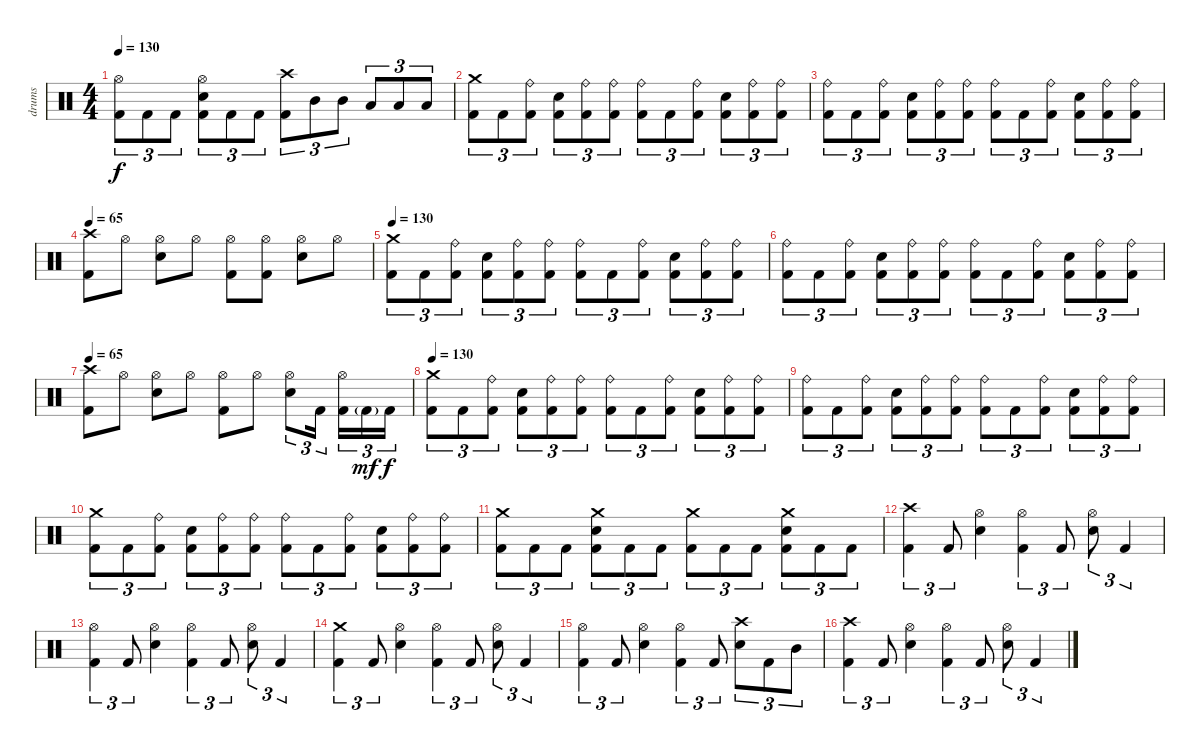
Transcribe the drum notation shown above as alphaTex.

\track ("drums" "drums") {instrument percussion}
\staff {score}
\articulation defaults
\ts (4 4)
\tempo 130
\clef neutral
\ks c
("Hi-Hat (open)" "Kick (hit) 2").8{tu (3 2) dy f} "Kick (hit) 2".8{tu (3 2)} "Kick (hit) 2".8{tu (3 2)} ("Hi-Hat (open)" "Electric Snare (hit)" "Kick (hit) 2").8{tu (3 2)} "Kick (hit) 2".8{tu (3 2)} "Kick (hit) 2".8{tu (3 2)} ("Crash high (hit)" "Kick (hit) 2").8{tu (3 2)} "Mid Tom (hit)".8{tu (3 2)} "Mid Tom (hit)".8{tu (3 2)} "Low Tom (hit)".8{tu (3 2)} "Low Tom (hit)".8{tu (3 2)} "Low Tom (hit)".8{tu (3 2)} |
("Crash medium (hit)" "Kick (hit) 2").8{tu (3 2)} "Kick (hit) 2".8{tu (3 2)} ("Ride (bell)" "Kick (hit) 2").8{tu (3 2)} ("Electric Snare (hit)" "Kick (hit) 2").8{tu (3 2)} ("Ride (bell)" "Kick (hit) 2").8{tu (3 2)} ("Ride (bell)" "Kick (hit) 2").8{tu (3 2)} ("Ride (bell)" "Kick (hit) 2").8{tu (3 2)} "Kick (hit) 2".8{tu (3 2)} ("Ride (bell)" "Kick (hit) 2").8{tu (3 2)} ("Electric Snare (hit)" "Kick (hit) 2").8{tu (3 2)} ("Ride (bell)" "Kick (hit) 2").8{tu (3 2)} ("Ride (bell)" "Kick (hit) 2").8{tu (3 2)} |
("Ride (bell)" "Kick (hit) 2").8{tu (3 2)} "Kick (hit) 2".8{tu (3 2)} ("Ride (bell)" "Kick (hit) 2").8{tu (3 2)} ("Electric Snare (hit)" "Kick (hit) 2").8{tu (3 2)} ("Ride (bell)" "Kick (hit) 2").8{tu (3 2)} ("Ride (bell)" "Kick (hit) 2").8{tu (3 2)} ("Ride (bell)" "Kick (hit) 2").8{tu (3 2)} "Kick (hit) 2".8{tu (3 2)} ("Ride (bell)" "Kick (hit) 2").8{tu (3 2)} ("Electric Snare (hit)" "Kick (hit) 2").8{tu (3 2)} ("Ride (bell)" "Kick (hit) 2").8{tu (3 2)} ("Ride (bell)" "Kick (hit) 2").8{tu (3 2)} |
\tempo 65
("Crash high (hit)" "Kick (hit) 2").8 "Hi-Hat (open)".8 ("Hi-Hat (open)" "Electric Snare (hit)").8 "Hi-Hat (open)".8 ("Hi-Hat (open)" "Kick (hit) 2").8 ("Hi-Hat (open)" "Kick (hit) 2").8 ("Hi-Hat (open)" "Electric Snare (hit)").8 "Hi-Hat (open)".8 |
\tempo 130
("Crash medium (hit)" "Kick (hit) 2").8{tu (3 2)} "Kick (hit) 2".8{tu (3 2)} ("Ride (bell)" "Kick (hit) 2").8{tu (3 2)} ("Electric Snare (hit)" "Kick (hit) 2").8{tu (3 2)} ("Ride (bell)" "Kick (hit) 2").8{tu (3 2)} ("Ride (bell)" "Kick (hit) 2").8{tu (3 2)} ("Ride (bell)" "Kick (hit) 2").8{tu (3 2)} "Kick (hit) 2".8{tu (3 2)} ("Ride (bell)" "Kick (hit) 2").8{tu (3 2)} ("Electric Snare (hit)" "Kick (hit) 2").8{tu (3 2)} ("Ride (bell)" "Kick (hit) 2").8{tu (3 2)} ("Ride (bell)" "Kick (hit) 2").8{tu (3 2)} |
("Ride (bell)" "Kick (hit) 2").8{tu (3 2)} "Kick (hit) 2".8{tu (3 2)} ("Ride (bell)" "Kick (hit) 2").8{tu (3 2)} ("Electric Snare (hit)" "Kick (hit) 2").8{tu (3 2)} ("Ride (bell)" "Kick (hit) 2").8{tu (3 2)} ("Ride (bell)" "Kick (hit) 2").8{tu (3 2)} ("Ride (bell)" "Kick (hit) 2").8{tu (3 2)} "Kick (hit) 2".8{tu (3 2)} ("Ride (bell)" "Kick (hit) 2").8{tu (3 2)} ("Electric Snare (hit)" "Kick (hit) 2").8{tu (3 2)} ("Ride (bell)" "Kick (hit) 2").8{tu (3 2)} ("Ride (bell)" "Kick (hit) 2").8{tu (3 2)} |
\tempo 65
("Crash high (hit)" "Kick (hit) 2").8 "Hi-Hat (open)".8 ("Hi-Hat (open)" "Electric Snare (hit)").8 "Hi-Hat (open)".8 ("Hi-Hat (open)" "Kick (hit) 2").8 "Hi-Hat (open)".8 ("Hi-Hat (open)" "Electric Snare (hit)").8{tu (3 2)} "Kick (hit) 2".16{tu (3 2)} ("Hi-Hat (open)" "Kick (hit) 2").16{tu (3 2)} "Kick (hit) 2"{g}.16{tu (3 2) dy mf} "Kick (hit) 2".16{tu (3 2) dy f} |
\tempo 130
("Crash medium (hit)" "Kick (hit) 2").8{tu (3 2)} "Kick (hit) 2".8{tu (3 2)} ("Ride (bell)" "Kick (hit) 2").8{tu (3 2)} ("Electric Snare (hit)" "Kick (hit) 2").8{tu (3 2)} ("Ride (bell)" "Kick (hit) 2").8{tu (3 2)} ("Ride (bell)" "Kick (hit) 2").8{tu (3 2)} ("Ride (bell)" "Kick (hit) 2").8{tu (3 2)} "Kick (hit) 2".8{tu (3 2)} ("Ride (bell)" "Kick (hit) 2").8{tu (3 2)} ("Electric Snare (hit)" "Kick (hit) 2").8{tu (3 2)} ("Ride (bell)" "Kick (hit) 2").8{tu (3 2)} ("Ride (bell)" "Kick (hit) 2").8{tu (3 2)} |
("Ride (bell)" "Kick (hit) 2").8{tu (3 2)} "Kick (hit) 2".8{tu (3 2)} ("Ride (bell)" "Kick (hit) 2").8{tu (3 2)} ("Electric Snare (hit)" "Kick (hit) 2").8{tu (3 2)} ("Ride (bell)" "Kick (hit) 2").8{tu (3 2)} ("Ride (bell)" "Kick (hit) 2").8{tu (3 2)} ("Ride (bell)" "Kick (hit) 2").8{tu (3 2)} "Kick (hit) 2".8{tu (3 2)} ("Ride (bell)" "Kick (hit) 2").8{tu (3 2)} ("Electric Snare (hit)" "Kick (hit) 2").8{tu (3 2)} ("Ride (bell)" "Kick (hit) 2").8{tu (3 2)} ("Ride (bell)" "Kick (hit) 2").8{tu (3 2)} |
("Crash medium (hit)" "Kick (hit) 2").8{tu (3 2)} "Kick (hit) 2".8{tu (3 2)} ("Ride (bell)" "Kick (hit) 2").8{tu (3 2)} ("Electric Snare (hit)" "Kick (hit) 2").8{tu (3 2)} ("Ride (bell)" "Kick (hit) 2").8{tu (3 2)} ("Ride (bell)" "Kick (hit) 2").8{tu (3 2)} ("Ride (bell)" "Kick (hit) 2").8{tu (3 2)} "Kick (hit) 2".8{tu (3 2)} ("Ride (bell)" "Kick (hit) 2").8{tu (3 2)} ("Electric Snare (hit)" "Kick (hit) 2").8{tu (3 2)} ("Ride (bell)" "Kick (hit) 2").8{tu (3 2)} ("Ride (bell)" "Kick (hit) 2").8{tu (3 2)} |
("Crash medium (hit)" "Kick (hit) 2").8{tu (3 2)} "Kick (hit) 2".8{tu (3 2)} "Kick (hit) 2".8{tu (3 2)} ("Crash medium (hit)" "Electric Snare (hit)" "Kick (hit) 2").8{tu (3 2)} "Kick (hit) 2".8{tu (3 2)} "Kick (hit) 2".8{tu (3 2)} ("Crash medium (hit)" "Kick (hit) 2").8{tu (3 2)} "Kick (hit) 2".8{tu (3 2)} "Kick (hit) 2".8{tu (3 2)} ("Crash medium (hit)" "Electric Snare (hit)" "Kick (hit) 2").8{tu (3 2)} "Kick (hit) 2".8{tu (3 2)} "Kick (hit) 2".8{tu (3 2)} |
("Crash high (hit)" "Kick (hit) 2").4{tu (3 2)} "Kick (hit) 2".8{tu (3 2)} ("Hi-Hat (open)" "Electric Snare (hit)").4 ("Hi-Hat (open)" "Kick (hit) 2").4{tu (3 2)} "Kick (hit) 2".8{tu (3 2)} ("Hi-Hat (open)" "Electric Snare (hit)").8{tu (3 2)} "Kick (hit) 2".4{tu (3 2)} |
("Hi-Hat (open)" "Kick (hit) 2").4{tu (3 2)} "Kick (hit) 2".8{tu (3 2)} ("Hi-Hat (open)" "Electric Snare (hit)").4 ("Hi-Hat (open)" "Kick (hit) 2").4{tu (3 2)} "Kick (hit) 2".8{tu (3 2)} ("Hi-Hat (open)" "Electric Snare (hit)").8{tu (3 2)} "Kick (hit) 2".4{tu (3 2)} |
("Crash medium (hit)" "Kick (hit) 2").4{tu (3 2)} "Kick (hit) 2".8{tu (3 2)} ("Hi-Hat (open)" "Electric Snare (hit)").4 ("Hi-Hat (open)" "Kick (hit) 2").4{tu (3 2)} "Kick (hit) 2".8{tu (3 2)} ("Hi-Hat (open)" "Electric Snare (hit)").8{tu (3 2)} "Kick (hit) 2".4{tu (3 2)} |
("Hi-Hat (open)" "Kick (hit) 2").4{tu (3 2)} "Kick (hit) 2".8{tu (3 2)} ("Hi-Hat (open)" "Electric Snare (hit)").4 ("Hi-Hat (open)" "Kick (hit) 2").4{tu (3 2)} "Kick (hit) 2".8{tu (3 2)} ("Crash high (hit)" "Electric Snare (hit)").8{tu (3 2)} "Kick (hit) 2".8{tu (3 2)} "Mid Tom (hit)".8{tu (3 2)} |
("Crash high (hit)" "Kick (hit) 2").4{tu (3 2)} "Kick (hit) 2".8{tu (3 2)} ("Hi-Hat (open)" "Electric Snare (hit)").4 ("Hi-Hat (open)" "Kick (hit) 2").4{tu (3 2)} "Kick (hit) 2".8{tu (3 2)} ("Hi-Hat (open)" "Electric Snare (hit)").8{tu (3 2)} "Kick (hit) 2".4{tu (3 2)}
